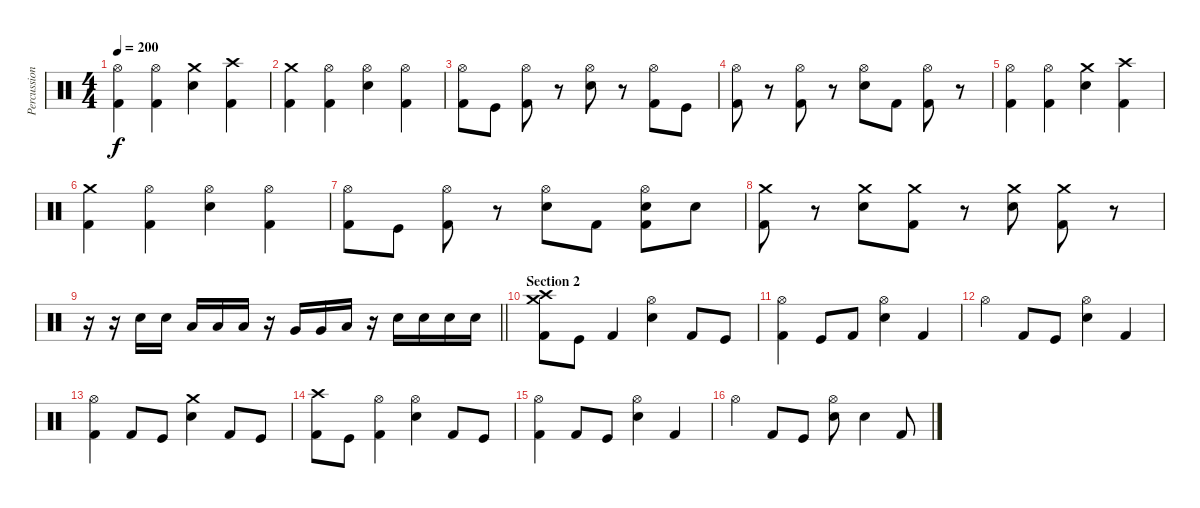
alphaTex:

\track ("Percussion" "Percussion") {instrument percussion}
\staff {score}
\articulation defaults
\ts (4 4)
\tempo 200
\clef neutral
\ks c
("Hi-Hat (open)" "Kick (hit) 2").4{dy f} ("Hi-Hat (open)" "Kick (hit) 2").4 ("Crash medium (hit)" "Snare (hit) 2").4 ("Crash high (hit)" "Kick (hit) 2").4 |
("Crash medium (hit)" "Kick (hit) 2").4 ("Hi-Hat (open)" "Kick (hit) 2").4 ("Hi-Hat (open)" "Snare (hit) 2").4 ("Hi-Hat (open)" "Kick (hit) 2").4 |
("Hi-Hat (open)" "Kick (hit) 2").8 "Kick (hit)".8 ("Hi-Hat (open)" "Kick (hit) 2").8 r.8 ("Hi-Hat (open)" "Snare (hit) 2").8 r.8 ("Hi-Hat (open)" "Kick (hit) 2").8 "Kick (hit)".8 |
("Hi-Hat (open)" "Kick (hit) 2").8 r.8 ("Hi-Hat (open)" "Kick (hit) 2").8 r.8 ("Hi-Hat (open)" "Snare (hit) 2").8 "Kick (hit) 2".8 ("Hi-Hat (open)" "Kick (hit) 2").8 r.8 |
("Hi-Hat (open)" "Kick (hit) 2").4 ("Hi-Hat (open)" "Kick (hit) 2").4 ("Crash medium (hit)" "Snare (hit) 2").4 ("Crash high (hit)" "Kick (hit) 2").4 |
("Crash medium (hit)" "Kick (hit) 2").4 ("Hi-Hat (open)" "Kick (hit) 2").4 ("Hi-Hat (open)" "Snare (hit) 2").4 ("Hi-Hat (open)" "Kick (hit) 2").4 |
("Hi-Hat (open)" "Kick (hit) 2").8 "Kick (hit)".8 ("Hi-Hat (open)" "Kick (hit) 2").8 r.8 ("Hi-Hat (open)" "Snare (hit) 2").8 "Kick (hit) 2".8 ("Hi-Hat (open)" "Snare (hit) 2" "Kick (hit) 2").8 "Snare (hit) 2".8 |
("Crash medium (hit)" "Kick (hit) 2").8 r.8 ("Crash medium (hit)" "Snare (hit) 2").8 ("Crash medium (hit)" "Kick (hit) 2").8 r.8 ("Crash medium (hit)" "Snare (hit) 2").8 ("Crash medium (hit)" "Kick (hit) 2").8 r.8 |
\barLineRight lightlight
r.16 r.16 "Snare (hit) 2".16 "Snare (hit) 2".16 "Low Tom (hit)".16 "Low Tom (hit)".16 "Low Tom (hit)".16 r.16 "Very Low Tom (hit)".16 "Very Low Tom (hit)".16 "Low Floor Tom (hit)".16 r.16 "Snare (hit) 2".16 "Snare (hit) 2".16 "Snare (hit) 2".16 "Snare (hit) 2".16 |
\section ("" "Section 2")
("Crash medium (hit)" "Crash high (hit)" "Kick (hit) 2").8 "Kick (hit)".8 "Kick (hit) 2".4 ("Hi-Hat (open)" "Snare (hit) 2").4 "Kick (hit) 2".8 "Kick (hit)".8 |
("Hi-Hat (open)" "Kick (hit) 2").4 "Kick (hit)".8 "Kick (hit) 2".8 ("Hi-Hat (open)" "Snare (hit) 2").4 "Kick (hit) 2".4 |
"Hi-Hat (open)".4 "Kick (hit) 2".8 "Kick (hit)".8 ("Hi-Hat (open)" "Snare (hit) 2").4 "Kick (hit) 2".4 |
("Hi-Hat (open)" "Kick (hit) 2").4 "Kick (hit) 2".8 "Kick (hit)".8 ("Crash medium (hit)" "Snare (hit) 2").4 "Kick (hit) 2".8 "Kick (hit)".8 |
("Crash high (hit)" "Kick (hit) 2").8 "Kick (hit)".8 ("Hi-Hat (open)" "Kick (hit) 2").4 ("Hi-Hat (open)" "Snare (hit) 2").4 "Kick (hit) 2".8 "Kick (hit)".8 |
("Hi-Hat (open)" "Kick (hit) 2").4 "Kick (hit) 2".8 "Kick (hit)".8 ("Hi-Hat (open)" "Snare (hit) 2").4 "Kick (hit) 2".4 |
"Hi-Hat (open)".4 "Kick (hit) 2".8 "Kick (hit)".8 ("Hi-Hat (open)" "Snare (hit) 2").8 "Snare (hit) 2".4 "Kick (hit) 2".8
